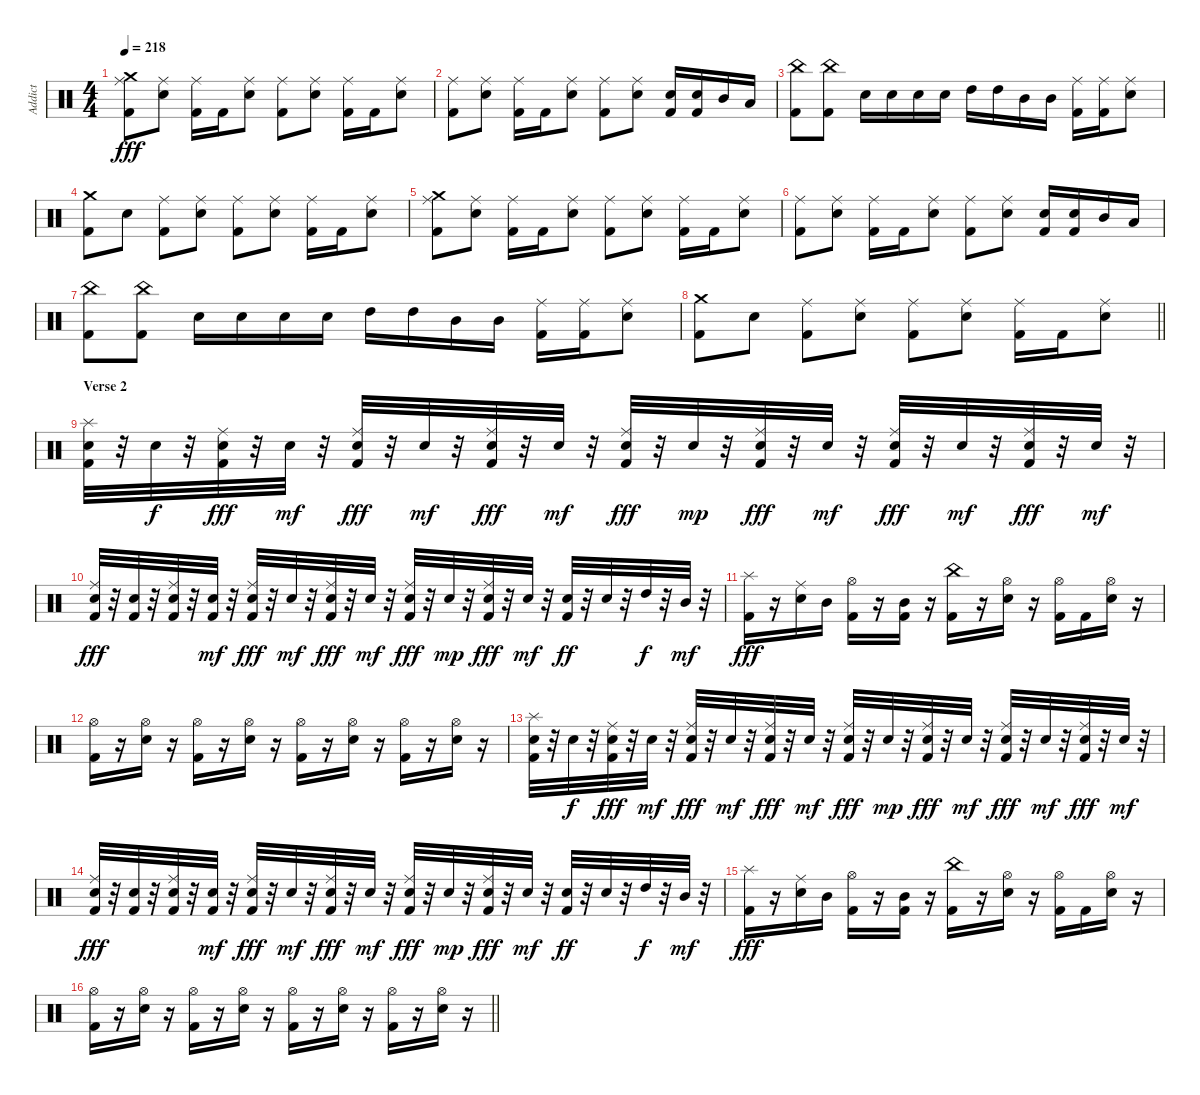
\track ("Addict" "Addict") {instrument percussion}
\staff {score}
\articulation defaults
\ts (4 4)
\tempo 218
\clef neutral
\ks c
("Kick (hit) 2" "Ride (middle)" "Crash medium (hit)").8{dy fff} ("Snare (hit) 2" "Ride (middle)").8 ("Kick (hit) 2" "Ride (middle)").16 "Kick (hit) 2".16 ("Snare (hit) 2" "Ride (middle)").8 ("Kick (hit) 2" "Ride (middle)").8 ("Snare (hit) 2" "Ride (middle)").8 ("Kick (hit) 2" "Ride (middle)").16 "Kick (hit) 2".16 ("Snare (hit) 2" "Ride (middle)").8 |
("Kick (hit) 2" "Ride (middle)").8 ("Snare (hit) 2" "Ride (middle)").8 ("Kick (hit) 2" "Ride (middle)").16 "Kick (hit) 2".16 ("Snare (hit) 2" "Ride (middle)").8 ("Kick (hit) 2" "Ride (middle)").8 ("Snare (hit) 2" "Ride (middle)").8 ("Kick (hit) 2" "Snare (hit) 2").16 ("Kick (hit) 2" "Snare (hit) 2").16 "Mid Tom (hit)".16 "Low Tom (hit)".16 |
("Kick (hit) 2" "China (hit)").8 ("Kick (hit) 2" "China (hit)").8 "Snare (hit) 2".16 "Snare (hit) 2".16 "Snare (hit) 2".16 "Snare (hit) 2".16 "High Tom (hit)".16 "High Tom (hit)".16 "Mid Tom (hit)".16 "Mid Tom (hit)".16 ("Kick (hit) 2" "Ride (middle)").16 ("Kick (hit) 2" "Ride (middle)").16 ("Snare (hit) 2" "Ride (middle)").8 |
("Kick (hit) 2" "Crash medium (hit)").8 "Snare (hit) 2".8 ("Kick (hit) 2" "Ride (middle)").8 ("Snare (hit) 2" "Ride (middle)").8 ("Kick (hit) 2" "Ride (middle)").8 ("Snare (hit) 2" "Ride (middle)").8 ("Kick (hit) 2" "Ride (middle)").16 "Kick (hit) 2".16 ("Snare (hit) 2" "Ride (middle)").8 |
("Kick (hit) 2" "Ride (middle)" "Crash medium (hit)").8 ("Snare (hit) 2" "Ride (middle)").8 ("Kick (hit) 2" "Ride (middle)").16 "Kick (hit) 2".16 ("Snare (hit) 2" "Ride (middle)").8 ("Kick (hit) 2" "Ride (middle)").8 ("Snare (hit) 2" "Ride (middle)").8 ("Kick (hit) 2" "Ride (middle)").16 "Kick (hit) 2".16 ("Snare (hit) 2" "Ride (middle)").8 |
("Kick (hit) 2" "Ride (middle)").8 ("Snare (hit) 2" "Ride (middle)").8 ("Kick (hit) 2" "Ride (middle)").16 "Kick (hit) 2".16 ("Snare (hit) 2" "Ride (middle)").8 ("Kick (hit) 2" "Ride (middle)").8 ("Snare (hit) 2" "Ride (middle)").8 ("Kick (hit) 2" "Snare (hit) 2").16 ("Kick (hit) 2" "Snare (hit) 2").16 "Mid Tom (hit)".16 "Low Tom (hit)".16 |
("Kick (hit) 2" "China (hit)").8 ("Kick (hit) 2" "China (hit)").8 "Snare (hit) 2".16 "Snare (hit) 2".16 "Snare (hit) 2".16 "Snare (hit) 2".16 "High Tom (hit)".16 "High Tom (hit)".16 "Mid Tom (hit)".16 "Mid Tom (hit)".16 ("Kick (hit) 2" "Ride (middle)").16 ("Kick (hit) 2" "Ride (middle)").16 ("Snare (hit) 2" "Ride (middle)").8 |
\barLineRight lightlight
("Kick (hit) 2" "Crash medium (hit)").8 "Snare (hit) 2".8 ("Kick (hit) 2" "Ride (middle)").8 ("Snare (hit) 2" "Ride (middle)").8 ("Kick (hit) 2" "Ride (middle)").8 ("Snare (hit) 2" "Ride (middle)").8 ("Kick (hit) 2" "Ride (middle)").16 "Kick (hit) 2".16 ("Snare (hit) 2" "Ride (middle)").8 |
\section ("" "Verse 2")
("Kick (hit) 2" "Snare (hit) 2" "Splash (hit)").32 r.32 "Snare (hit) 2".32{dy f} r.32 ("Kick (hit) 2" "Snare (hit) 2" "Ride (middle)").32{dy fff} r.32 "Snare (hit) 2".32{dy mf} r.32 ("Kick (hit) 2" "Snare (hit) 2" "Ride (middle)").32{dy fff} r.32 "Snare (hit) 2".32{dy mf} r.32 ("Kick (hit) 2" "Snare (hit) 2" "Ride (middle)").32{dy fff} r.32 "Snare (hit) 2".32{dy mf} r.32 ("Kick (hit) 2" "Snare (hit) 2" "Ride (middle)").32{dy fff} r.32 "Snare (hit) 2".32{dy mp} r.32 ("Kick (hit) 2" "Snare (hit) 2" "Ride (middle)").32{dy fff} r.32 "Snare (hit) 2".32{dy mf} r.32 ("Kick (hit) 2" "Snare (hit) 2" "Ride (middle)").32{dy fff} r.32 "Snare (hit) 2".32{dy mf} r.32 ("Kick (hit) 2" "Snare (hit) 2" "Ride (middle)").32{dy fff} r.32 "Snare (hit) 2".32{dy mf} r.32 |
("Kick (hit) 2" "Snare (hit) 2" "Ride (middle)").32{dy fff} r.32 ("Kick (hit) 2" "Snare (hit) 2").32 r.32 ("Kick (hit) 2" "Snare (hit) 2" "Ride (middle)").32 r.32 ("Kick (hit) 2" "Snare (hit) 2").32{dy mf} r.32 ("Kick (hit) 2" "Snare (hit) 2" "Ride (middle)").32{dy fff} r.32 "Snare (hit) 2".32{dy mf} r.32 ("Kick (hit) 2" "Snare (hit) 2" "Ride (middle)").32{dy fff} r.32 "Snare (hit) 2".32{dy mf} r.32 ("Kick (hit) 2" "Snare (hit) 2" "Ride (middle)").32{dy fff} r.32 "Snare (hit) 2".32{dy mp} r.32 ("Kick (hit) 2" "Snare (hit) 2" "Ride (middle)").32{dy fff} r.32 "Snare (hit) 2".32{dy mf} r.32 ("Kick (hit) 2" "Snare (hit) 2").32{dy ff} r.32 "Snare (hit) 2".32 r.32 "High Tom (hit)".32{dy f} r.32 "Mid Tom (hit)".32{dy mf} r.32 |
("Kick (hit) 2" "Splash (hit)").16{dy fff} r.16 ("Snare (hit) 2" "Ride (middle)").16 "Mid Tom (hit)".16 ("Kick (hit) 2" "Hi-Hat (open)").16 r.16 ("Kick (hit) 2" "Mid Tom (hit)").16 r.16 ("Kick (hit) 2" "China (hit)").16 r.16 ("Snare (hit) 2" "Hi-Hat (open)").16 r.16 ("Kick (hit) 2" "Hi-Hat (open)").16 "Kick (hit) 2".16 ("Snare (hit) 2" "Hi-Hat (open)").16 r.16 |
("Kick (hit) 2" "Hi-Hat (open)").16 r.16 ("Snare (hit) 2" "Hi-Hat (open)").16 r.16 ("Kick (hit) 2" "Hi-Hat (open)").16 r.16 ("Snare (hit) 2" "Hi-Hat (open)").16 r.16 ("Kick (hit) 2" "Hi-Hat (open)").16 r.16 ("Snare (hit) 2" "Hi-Hat (open)").16 r.16 ("Kick (hit) 2" "Hi-Hat (open)").16 r.16 ("Snare (hit) 2" "Hi-Hat (open)").16 r.16 |
("Kick (hit) 2" "Snare (hit) 2" "Splash (hit)").32 r.32 "Snare (hit) 2".32{dy f} r.32 ("Kick (hit) 2" "Snare (hit) 2" "Ride (middle)").32{dy fff} r.32 "Snare (hit) 2".32{dy mf} r.32 ("Kick (hit) 2" "Snare (hit) 2" "Ride (middle)").32{dy fff} r.32 "Snare (hit) 2".32{dy mf} r.32 ("Kick (hit) 2" "Snare (hit) 2" "Ride (middle)").32{dy fff} r.32 "Snare (hit) 2".32{dy mf} r.32 ("Kick (hit) 2" "Snare (hit) 2" "Ride (middle)").32{dy fff} r.32 "Snare (hit) 2".32{dy mp} r.32 ("Kick (hit) 2" "Snare (hit) 2" "Ride (middle)").32{dy fff} r.32 "Snare (hit) 2".32{dy mf} r.32 ("Kick (hit) 2" "Snare (hit) 2" "Ride (middle)").32{dy fff} r.32 "Snare (hit) 2".32{dy mf} r.32 ("Kick (hit) 2" "Snare (hit) 2" "Ride (middle)").32{dy fff} r.32 "Snare (hit) 2".32{dy mf} r.32 |
("Kick (hit) 2" "Snare (hit) 2" "Ride (middle)").32{dy fff} r.32 ("Kick (hit) 2" "Snare (hit) 2").32 r.32 ("Kick (hit) 2" "Snare (hit) 2" "Ride (middle)").32 r.32 ("Kick (hit) 2" "Snare (hit) 2").32{dy mf} r.32 ("Kick (hit) 2" "Snare (hit) 2" "Ride (middle)").32{dy fff} r.32 "Snare (hit) 2".32{dy mf} r.32 ("Kick (hit) 2" "Snare (hit) 2" "Ride (middle)").32{dy fff} r.32 "Snare (hit) 2".32{dy mf} r.32 ("Kick (hit) 2" "Snare (hit) 2" "Ride (middle)").32{dy fff} r.32 "Snare (hit) 2".32{dy mp} r.32 ("Kick (hit) 2" "Snare (hit) 2" "Ride (middle)").32{dy fff} r.32 "Snare (hit) 2".32{dy mf} r.32 ("Kick (hit) 2" "Snare (hit) 2").32{dy ff} r.32 "Snare (hit) 2".32 r.32 "High Tom (hit)".32{dy f} r.32 "Mid Tom (hit)".32{dy mf} r.32 |
("Kick (hit) 2" "Splash (hit)").16{dy fff} r.16 ("Snare (hit) 2" "Ride (middle)").16 "Mid Tom (hit)".16 ("Kick (hit) 2" "Hi-Hat (open)").16 r.16 ("Kick (hit) 2" "Mid Tom (hit)").16 r.16 ("Kick (hit) 2" "China (hit)").16 r.16 ("Snare (hit) 2" "Hi-Hat (open)").16 r.16 ("Kick (hit) 2" "Hi-Hat (open)").16 "Kick (hit) 2".16 ("Snare (hit) 2" "Hi-Hat (open)").16 r.16 |
\barLineRight lightlight
("Kick (hit) 2" "Hi-Hat (open)").16 r.16 ("Snare (hit) 2" "Hi-Hat (open)").16 r.16 ("Kick (hit) 2" "Hi-Hat (open)").16 r.16 ("Snare (hit) 2" "Hi-Hat (open)").16 r.16 ("Kick (hit) 2" "Hi-Hat (open)").16 r.16 ("Snare (hit) 2" "Hi-Hat (open)").16 r.16 ("Kick (hit) 2" "Hi-Hat (open)").16 r.16 ("Snare (hit) 2" "Hi-Hat (open)").16 r.16
